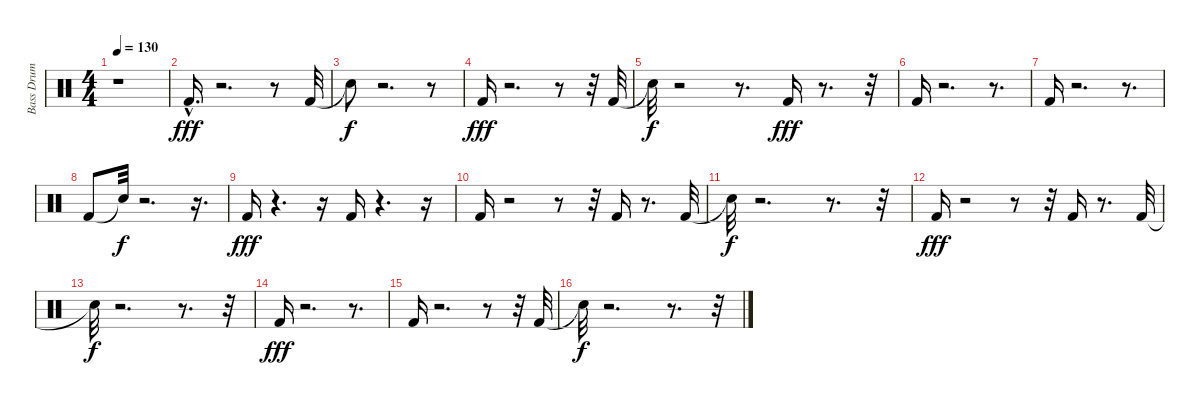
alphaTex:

\track ("Bass Drum" "Bass Drum") {instrument percussion}
\staff {score}
\articulation defaults
\ts (4 4)
\tempo 130
\clef neutral
\ks c
r.1{dy fff} |
"Kick (hit) 2"{hac}.16{d} r.2{d} r.8 "Kick (hit) 2".32 |
"Snare (hit)"{t}.8{dy f} r.2{d} r.8 |
"Kick (hit) 2".16{dy fff} r.2{d} r.8 r.32 "Kick (hit) 2".32 |
"Snare (hit)"{t}.32{dy f} r.2 r.8{d} "Kick (hit) 2".16{dy fff} r.8{d} r.32 |
"Kick (hit) 2".16 r.2{d} r.8{d} |
"Kick (hit) 2".16 r.2{d} r.8{d} |
"Kick (hit) 2".8 "Snare (hit)"{t}.32{dy f} r.2{d} r.16{d} |
"Kick (hit) 2".16{dy fff} r.4{d} r.16 "Kick (hit) 2".16 r.4{d} r.16 |
"Kick (hit) 2".16 r.2 r.8 r.32 "Kick (hit) 2".16 r.8{d} "Kick (hit) 2".32 |
"Snare (hit)"{t}.32{dy f} r.2{d} r.8{d} r.32 |
"Kick (hit) 2".16{dy fff} r.2 r.8 r.32 "Kick (hit) 2".16 r.8{d} "Kick (hit) 2".32 |
"Snare (hit)"{t}.32{dy f} r.2{d} r.8{d} r.32 |
"Kick (hit) 2".16{dy fff} r.2{d} r.8{d} |
"Kick (hit) 2".16 r.2{d} r.8 r.32 "Kick (hit) 2".32 |
"Snare (hit)"{t}.32{dy f} r.2{d} r.8{d} r.32
